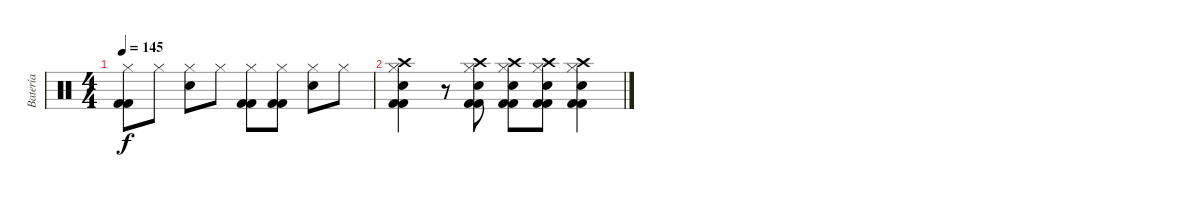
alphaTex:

\track ("Batería" "Batería") {instrument percussion}
\staff {score}
\articulation defaults
\ts (4 4)
\tempo 145
\clef neutral
\ks c
("Kick (hit) 2" "Kick (hit) 2" "Hi-Hat (closed)").8{dy f} "Hi-Hat (closed)".8 ("Snare (hit) 2" "Hi-Hat (closed)").8 "Hi-Hat (closed)".8 ("Kick (hit) 2" "Kick (hit) 2" "Hi-Hat (closed)").8 ("Kick (hit) 2" "Kick (hit) 2" "Hi-Hat (closed)").8 ("Snare (hit) 2" "Hi-Hat (closed)").8 "Hi-Hat (closed)".8 |
("Snare (hit) 2" "Kick (hit) 2" "Kick (hit) 2" "Crash high (hit)" "Hi-Hat (closed)").4 r.8 ("Snare (hit) 2" "Kick (hit) 2" "Kick (hit) 2" "Crash high (hit)" "Hi-Hat (closed)").8 ("Snare (hit) 2" "Kick (hit) 2" "Kick (hit) 2" "Crash high (hit)" "Hi-Hat (closed)").8 ("Snare (hit) 2" "Kick (hit) 2" "Kick (hit) 2" "Crash high (hit)" "Hi-Hat (closed)").8 ("Snare (hit) 2" "Kick (hit) 2" "Kick (hit) 2" "Crash high (hit)" "Hi-Hat (closed)").4
